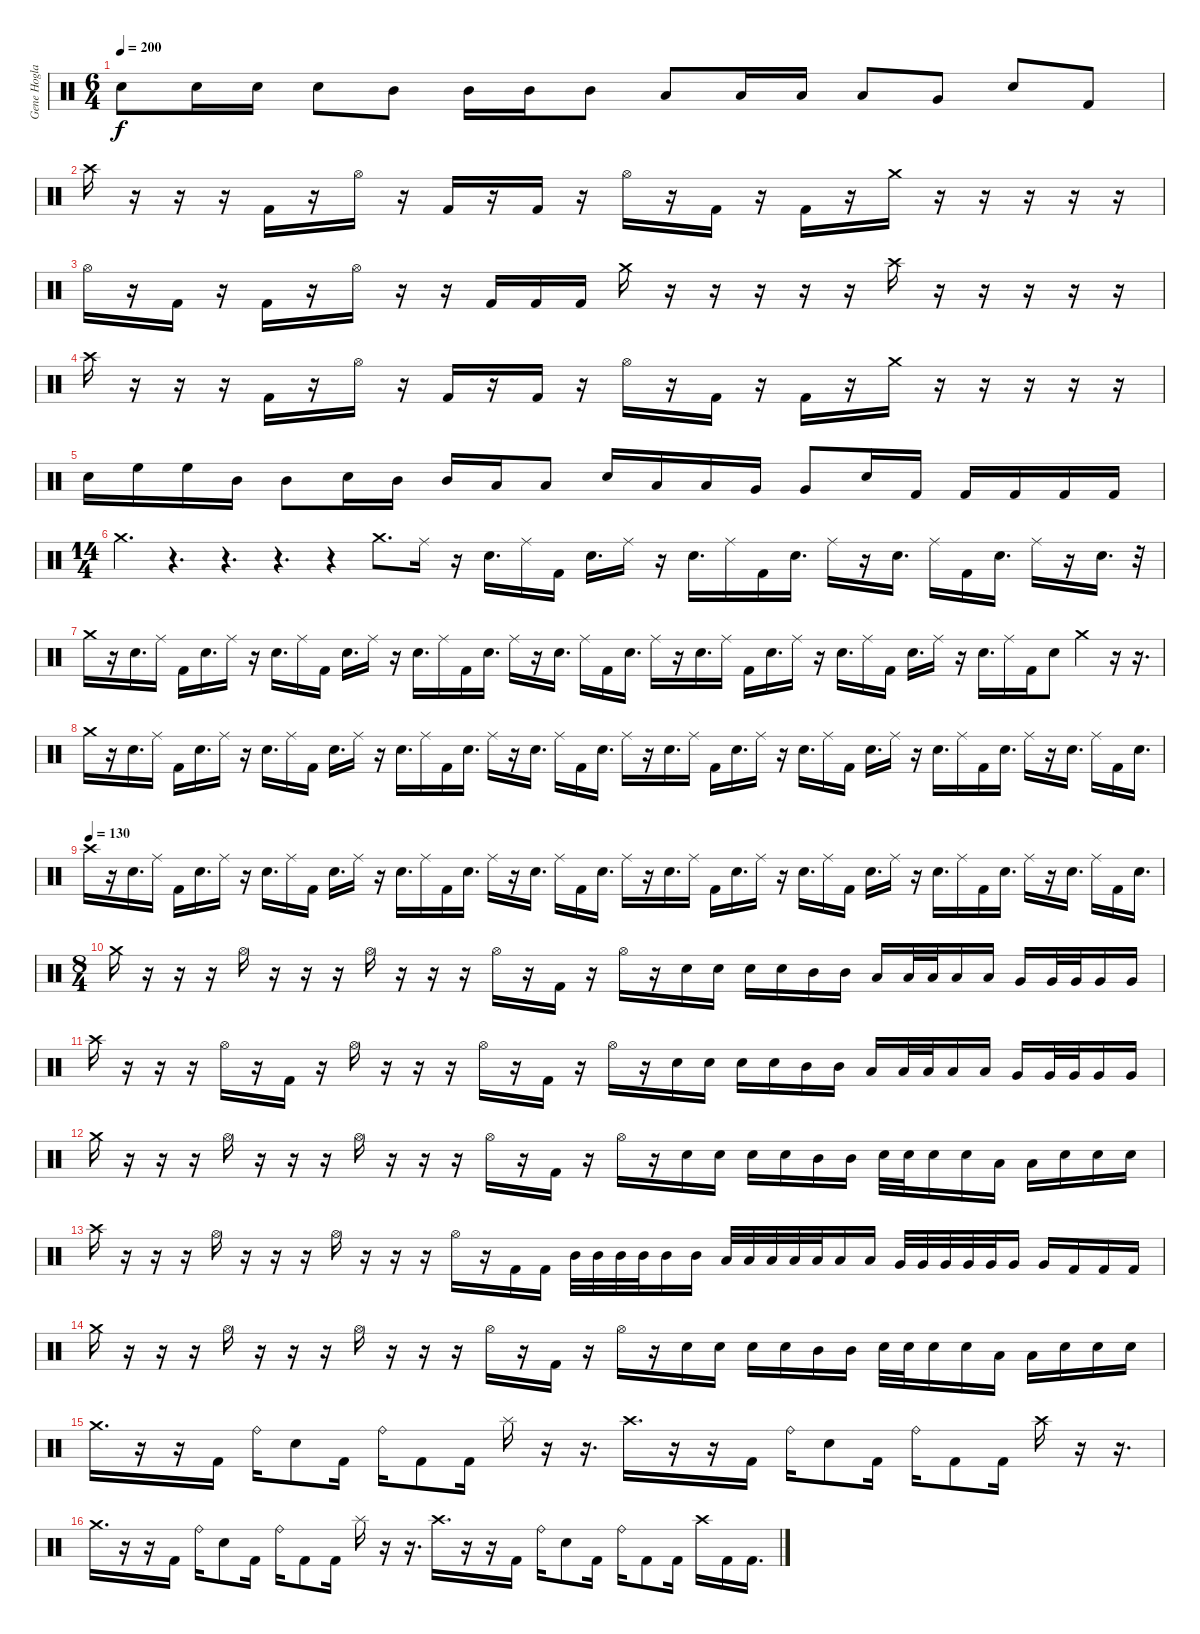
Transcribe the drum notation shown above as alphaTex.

\track ("Gene Hoglan" "Gene Hogla") {instrument percussion}
\staff {score}
\articulation defaults
\ts (6 4)
\tempo 200
\clef neutral
\ks c "Snare (hit) 2".8{dy f} "Snare (hit) 2".16 "Snare (hit) 2".16 "Snare (hit) 2".8 "Mid Tom (hit)".8 "Mid Tom (hit)".16 "Mid Tom (hit)".16 "Mid Tom (hit)".8 "Low Tom (hit)".8 "Low Tom (hit)".16 "Low Tom (hit)".16 "Low Tom (hit)".8 "Very Low Tom (hit)".8 "Snare (hit) 2".8 "Kick (hit) 2".8
|
"Crash high (hit)".16 r.16 r.16 r.16 "Kick (hit) 2".16 r.16 "Hi-Hat (open)".16 r.16 "Kick (hit) 2".16 r.16 "Kick (hit) 2".16 r.16 "Hi-Hat (open)".16 r.16 "Kick (hit) 2".16 r.16 "Kick (hit) 2".16 r.16 "Crash medium (hit)".16 r.16 r.16 r.16 r.16 r.16 |
"Hi-Hat (open)".16 r.16 "Kick (hit) 2".16 r.16 "Kick (hit) 2".16 r.16 "Hi-Hat (open)".16 r.16 r.16 "Kick (hit) 2".16 "Kick (hit) 2".16 "Kick (hit) 2".16 "Crash medium (hit)".16 r.16 r.16 r.16 r.16 r.16 "Crash high (hit)".16 r.16 r.16 r.16 r.16 r.16 |
"Crash high (hit)".16 r.16 r.16 r.16 "Kick (hit) 2".16 r.16 "Hi-Hat (open)".16 r.16 "Kick (hit) 2".16 r.16 "Kick (hit) 2".16 r.16 "Hi-Hat (open)".16 r.16 "Kick (hit) 2".16 r.16 "Kick (hit) 2".16 r.16 "Crash medium (hit)".16 r.16 r.16 r.16 r.16 r.16 |
"Snare (hit) 2".16 "High Floor Tom (hit)".16 "High Floor Tom (hit)".16 "Mid Tom (hit)".16 "Mid Tom (hit)".8 "Snare (hit) 2".16 "Mid Tom (hit)".16 "Mid Tom (hit)".16 "Low Tom (hit)".16 "Low Tom (hit)".8 "Snare (hit) 2".16 "Low Tom (hit)".16 "Low Tom (hit)".16 "Very Low Tom (hit)".16 "Very Low Tom (hit)".8 "Snare (hit) 2".16 "Kick (hit) 2".16 "Kick (hit) 2".16 "Kick (hit) 2".16 "Kick (hit) 2".16 "Kick (hit) 2".16 |
\ts (14 4)
"Crash medium (hit)".4{d} r.4{d} r.4{d} r.4{d} r.4 "Crash medium (hit)".8{d} "Ride (middle)".16 r.16 "Snare (hit) 2".16{d} "Ride (middle)".16 "Kick (hit) 2".16 "Snare (hit) 2".16{d} "Ride (middle)".16 r.16 "Snare (hit) 2".16{d} "Ride (middle)".16 "Kick (hit) 2".16 "Snare (hit) 2".16{d} "Ride (middle)".16 r.16 "Snare (hit) 2".16{d} "Ride (middle)".16 "Kick (hit) 2".16 "Snare (hit) 2".16{d} "Ride (middle)".16 r.16 "Snare (hit) 2".16{d} r.32 |
"Crash medium (hit)".16 r.16 "Snare (hit) 2".16{d} "Ride (middle)".16 "Kick (hit) 2".16 "Snare (hit) 2".16{d} "Ride (middle)".16 r.16 "Snare (hit) 2".16{d} "Ride (middle)".16 "Kick (hit) 2".16 "Snare (hit) 2".16{d} "Ride (middle)".16 r.16 "Snare (hit) 2".16{d} "Ride (middle)".16 "Kick (hit) 2".16 "Snare (hit) 2".16{d} "Ride (middle)".16 r.16 "Snare (hit) 2".16{d} "Ride (middle)".16 "Kick (hit) 2".16 "Snare (hit) 2".16{d} "Ride (middle)".16 r.16 "Snare (hit) 2".16{d} "Ride (middle)".16 "Kick (hit) 2".16 "Snare (hit) 2".16{d} "Ride (middle)".16 r.16 "Snare (hit) 2".16{d} "Ride (middle)".16 "Kick (hit) 2".16 "Snare (hit) 2".16{d} "Ride (middle)".16 r.16 "Snare (hit) 2".16{d} "Ride (middle)".16 "Kick (hit) 2".16 "Snare (hit) 2".8 "Crash medium (hit)".4 r.16 r.16{d} |
"Crash medium (hit)".16 r.16 "Snare (hit) 2".16{d} "Ride (middle)".16 "Kick (hit) 2".16 "Snare (hit) 2".16{d} "Ride (middle)".16 r.16 "Snare (hit) 2".16{d} "Ride (middle)".16 "Kick (hit) 2".16 "Snare (hit) 2".16{d} "Ride (middle)".16 r.16 "Snare (hit) 2".16{d} "Ride (middle)".16 "Kick (hit) 2".16 "Snare (hit) 2".16{d} "Ride (middle)".16 r.16 "Snare (hit) 2".16{d} "Ride (middle)".16 "Kick (hit) 2".16 "Snare (hit) 2".16{d} "Ride (middle)".16 r.16 "Snare (hit) 2".16{d} "Ride (middle)".16 "Kick (hit) 2".16 "Snare (hit) 2".16{d} "Ride (middle)".16 r.16 "Snare (hit) 2".16{d} "Ride (middle)".16 "Kick (hit) 2".16 "Snare (hit) 2".16{d} "Ride (middle)".16 r.16 "Snare (hit) 2".16{d} "Ride (middle)".16 "Kick (hit) 2".16 "Snare (hit) 2".16{d} "Ride (middle)".16 r.16 "Snare (hit) 2".16{d} "Ride (middle)".16 "Kick (hit) 2".16 "Snare (hit) 2".16{d} |
\tempo (130)
"Crash high (hit)".16 r.16 "Snare (hit) 2".16{d} "Ride (middle)".16 "Kick (hit) 2".16 "Snare (hit) 2".16{d} "Ride (middle)".16 r.16 "Snare (hit) 2".16{d} "Ride (middle)".16 "Kick (hit) 2".16 "Snare (hit) 2".16{d} "Ride (middle)".16 r.16 "Snare (hit) 2".16{d} "Ride (middle)".16 "Kick (hit) 2".16 "Snare (hit) 2".16{d} "Ride (middle)".16 r.16 "Snare (hit) 2".16{d} "Ride (middle)".16 "Kick (hit) 2".16 "Snare (hit) 2".16{d} "Ride (middle)".16 r.16 "Snare (hit) 2".16{d} "Ride (middle)".16 "Kick (hit) 2".16 "Snare (hit) 2".16{d} "Ride (middle)".16 r.16 "Snare (hit) 2".16{d} "Ride (middle)".16 "Kick (hit) 2".16 "Snare (hit) 2".16{d} "Ride (middle)".16 r.16 "Snare (hit) 2".16{d} "Ride (middle)".16 "Kick (hit) 2".16 "Snare (hit) 2".16{d} "Ride (middle)".16 r.16 "Snare (hit) 2".16{d} "Ride (middle)".16 "Kick (hit) 2".16 "Snare (hit) 2".16{d} |
\ts (8 4)
"Crash medium (hit)".16 r.16 r.16 r.16 "Hi-Hat (open)".16 r.16 r.16 r.16 "Hi-Hat (open)".16 r.16 r.16 r.16 "Hi-Hat (open)".16 r.16 "Kick (hit) 2".16 r.16 "Hi-Hat (open)".16 r.16 "Snare (hit) 2".16 "Snare (hit) 2".16 "Snare (hit) 2".16 "Snare (hit) 2".16 "Mid Tom (hit)".16 "Mid Tom (hit)".16 "Low Tom (hit)".16 "Low Tom (hit)".32 "Low Tom (hit)".32 "Low Tom (hit)".16 "Low Tom (hit)".16 "Very Low Tom (hit)".16 "Very Low Tom (hit)".32 "Very Low Tom (hit)".32 "Very Low Tom (hit)".16 "Very Low Tom (hit)".16 |
"Crash high (hit)".16 r.16 r.16 r.16 "Hi-Hat (open)".16 r.16 "Kick (hit) 2".16 r.16 "Hi-Hat (open)".16 r.16 r.16 r.16 "Hi-Hat (open)".16 r.16 "Kick (hit) 2".16 r.16 "Hi-Hat (open)".16 r.16 "Snare (hit) 2".16 "Snare (hit) 2".16 "Snare (hit) 2".16 "Snare (hit) 2".16 "Mid Tom (hit)".16 "Mid Tom (hit)".16 "Low Tom (hit)".16 "Low Tom (hit)".32 "Low Tom (hit)".32 "Low Tom (hit)".16 "Low Tom (hit)".16 "Very Low Tom (hit)".16 "Very Low Tom (hit)".32 "Very Low Tom (hit)".32 "Very Low Tom (hit)".16 "Very Low Tom (hit)".16 |
"Crash medium (hit)".16 r.16 r.16 r.16 "Hi-Hat (open)".16 r.16 r.16 r.16 "Hi-Hat (open)".16 r.16 r.16 r.16 "Hi-Hat (open)".16 r.16 "Kick (hit) 2".16 r.16 "Hi-Hat (open)".16 r.16 "Snare (hit) 2".16 "Snare (hit) 2".16 "Snare (hit) 2".16 "Snare (hit) 2".16 "Mid Tom (hit)".16 "Mid Tom (hit)".16 "Snare (hit) 2".32 "Snare (hit) 2".32 "Snare (hit) 2".16 "Snare (hit) 2".16 "Low Tom (hit)".16 "Low Tom (hit)".16 "Snare (hit) 2".16 "Snare (hit) 2".16 "Snare (hit) 2".16 |
"Crash high (hit)".16 r.16 r.16 r.16 "Hi-Hat (open)".16 r.16 r.16 r.16 "Hi-Hat (open)".16 r.16 r.16 r.16 "Hi-Hat (open)".16 r.16 "Kick (hit) 2".16 "Kick (hit) 2".16 "Mid Tom (hit)".32 "Mid Tom (hit)".32 "Mid Tom (hit)".32 "Mid Tom (hit)".32 "Mid Tom (hit)".16 "Mid Tom (hit)".16 "Low Tom (hit)".32 "Low Tom (hit)".32 "Low Tom (hit)".32 "Low Tom (hit)".32 "Low Tom (hit)".32 "Low Tom (hit)".16 "Low Tom (hit)".16 "Very Low Tom (hit)".32 "Very Low Tom (hit)".32 "Very Low Tom (hit)".32 "Very Low Tom (hit)".32 "Very Low Tom (hit)".32 "Very Low Tom (hit)".16 "Very Low Tom (hit)".16 "Kick (hit) 2".16 "Kick (hit) 2".16 "Kick (hit) 2".16 |
"Crash medium (hit)".16 r.16 r.16 r.16 "Hi-Hat (open)".16 r.16 r.16 r.16 "Hi-Hat (open)".16 r.16 r.16 r.16 "Hi-Hat (open)".16 r.16 "Kick (hit) 2".16 r.16 "Hi-Hat (open)".16 r.16 "Snare (hit) 2".16 "Snare (hit) 2".16 "Snare (hit) 2".16 "Snare (hit) 2".16 "Mid Tom (hit)".16 "Mid Tom (hit)".16 "Snare (hit) 2".32 "Snare (hit) 2".32 "Snare (hit) 2".16 "Snare (hit) 2".16 "Low Tom (hit)".16 "Low Tom (hit)".16 "Snare (hit) 2".16 "Snare (hit) 2".16 "Snare (hit) 2".16 |
"Crash medium (hit)".16{d} r.16 r.16 "Kick (hit) 2".16 "Ride (bell)".16 "Snare (hit) 2".8 "Kick (hit) 2".16 "Ride (bell)".16 "Kick (hit) 2".8 "Kick (hit) 2".16 "Splash (hit)".16 r.16 r.16{d} "Crash high (hit)".16{d} r.16 r.16 "Kick (hit) 2".16 "Ride (bell)".16 "Snare (hit) 2".8 "Kick (hit) 2".16 "Ride (bell)".16 "Kick (hit) 2".8 "Kick (hit) 2".16 "Crash high (hit)".16 r.16 r.16{d} |
"Crash medium (hit)".16{d} r.16 r.16 "Kick (hit) 2".16 "Ride (bell)".16 "Snare (hit) 2".8 "Kick (hit) 2".16 "Ride (bell)".16 "Kick (hit) 2".8 "Kick (hit) 2".16 "Splash (hit)".16 r.16 r.16{d} "Crash high (hit)".16{d} r.16 r.16 "Kick (hit) 2".16 "Ride (bell)".16 "Snare (hit) 2".8 "Kick (hit) 2".16 "Ride (bell)".16 "Kick (hit) 2".8 "Kick (hit) 2".16 "Crash high (hit)".16 "Kick (hit) 2".16 "Kick (hit) 2".16{d}
